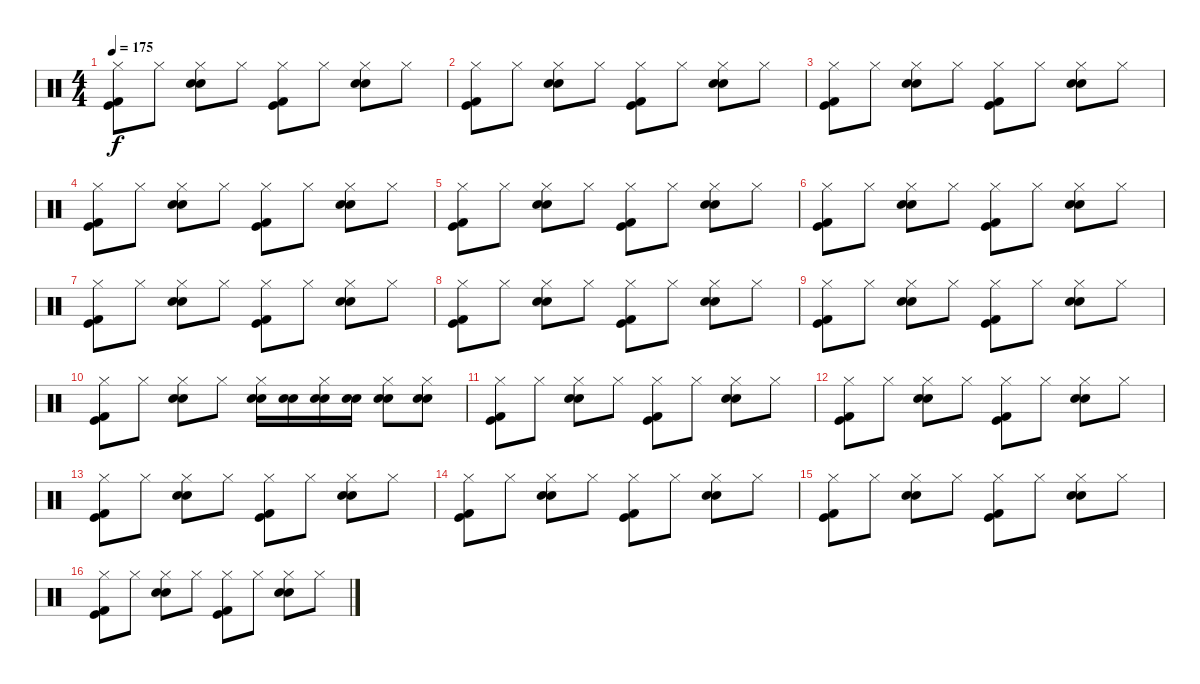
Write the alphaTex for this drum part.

\track "" {instrument percussion}
\staff {score}
\articulation defaults
\ts (4 4)
\tempo 175
\clef neutral
\ks c
("Kick (hit) 2" "Kick (hit)" "Hi-Hat (closed)").8{dy f} "Hi-Hat (closed)".8 ("Electric Snare (hit)" "Snare (hit) 2" "Hi-Hat (closed)").8 "Hi-Hat (closed)".8 ("Hi-Hat (closed)" "Kick (hit)" "Kick (hit) 2").8 "Hi-Hat (closed)".8 ("Electric Snare (hit)" "Snare (hit) 2" "Hi-Hat (closed)").8 "Hi-Hat (closed)".8 |
("Hi-Hat (closed)" "Kick (hit)" "Kick (hit) 2").8 "Hi-Hat (closed)".8 ("Electric Snare (hit)" "Snare (hit) 2" "Hi-Hat (closed)").8 "Hi-Hat (closed)".8 ("Hi-Hat (closed)" "Kick (hit)" "Kick (hit) 2").8 "Hi-Hat (closed)".8 ("Electric Snare (hit)" "Snare (hit) 2" "Hi-Hat (closed)").8 "Hi-Hat (closed)".8 |
("Kick (hit) 2" "Kick (hit)" "Hi-Hat (closed)").8 "Hi-Hat (closed)".8 ("Electric Snare (hit)" "Snare (hit) 2" "Hi-Hat (closed)").8 "Hi-Hat (closed)".8 ("Hi-Hat (closed)" "Kick (hit)" "Kick (hit) 2").8 "Hi-Hat (closed)".8 ("Electric Snare (hit)" "Snare (hit) 2" "Hi-Hat (closed)").8 "Hi-Hat (closed)".8 |
("Hi-Hat (closed)" "Kick (hit)" "Kick (hit) 2").8 "Hi-Hat (closed)".8 ("Electric Snare (hit)" "Snare (hit) 2" "Hi-Hat (closed)").8 "Hi-Hat (closed)".8 ("Hi-Hat (closed)" "Kick (hit)" "Kick (hit) 2").8 "Hi-Hat (closed)".8 ("Electric Snare (hit)" "Snare (hit) 2" "Hi-Hat (closed)").8 "Hi-Hat (closed)".8 |
("Kick (hit) 2" "Kick (hit)" "Hi-Hat (closed)").8 "Hi-Hat (closed)".8 ("Electric Snare (hit)" "Snare (hit) 2" "Hi-Hat (closed)").8 "Hi-Hat (closed)".8 ("Hi-Hat (closed)" "Kick (hit)" "Kick (hit) 2").8 "Hi-Hat (closed)".8 ("Electric Snare (hit)" "Snare (hit) 2" "Hi-Hat (closed)").8 "Hi-Hat (closed)".8 |
("Hi-Hat (closed)" "Kick (hit)" "Kick (hit) 2").8 "Hi-Hat (closed)".8 ("Electric Snare (hit)" "Snare (hit) 2" "Hi-Hat (closed)").8 "Hi-Hat (closed)".8 ("Hi-Hat (closed)" "Kick (hit)" "Kick (hit) 2").8 "Hi-Hat (closed)".8 ("Electric Snare (hit)" "Snare (hit) 2" "Hi-Hat (closed)").8 "Hi-Hat (closed)".8 |
("Hi-Hat (closed)" "Kick (hit)" "Kick (hit) 2").8 "Hi-Hat (closed)".8 ("Electric Snare (hit)" "Snare (hit) 2" "Hi-Hat (closed)").8 "Hi-Hat (closed)".8 ("Hi-Hat (closed)" "Kick (hit)" "Kick (hit) 2").8 "Hi-Hat (closed)".8 ("Electric Snare (hit)" "Snare (hit) 2" "Hi-Hat (closed)").8 "Hi-Hat (closed)".8 |
("Hi-Hat (closed)" "Kick (hit)" "Kick (hit) 2").8 "Hi-Hat (closed)".8 ("Electric Snare (hit)" "Snare (hit) 2" "Hi-Hat (closed)").8 "Hi-Hat (closed)".8 ("Hi-Hat (closed)" "Kick (hit)" "Kick (hit) 2").8 "Hi-Hat (closed)".8 ("Electric Snare (hit)" "Snare (hit) 2" "Hi-Hat (closed)").8 "Hi-Hat (closed)".8 |
("Hi-Hat (closed)" "Kick (hit)" "Kick (hit) 2").8 "Hi-Hat (closed)".8 ("Electric Snare (hit)" "Snare (hit) 2" "Hi-Hat (closed)").8 "Hi-Hat (closed)".8 ("Hi-Hat (closed)" "Kick (hit)" "Kick (hit) 2").8 "Hi-Hat (closed)".8 ("Electric Snare (hit)" "Snare (hit) 2" "Hi-Hat (closed)").8 "Hi-Hat (closed)".8 |
("Hi-Hat (closed)" "Kick (hit)" "Kick (hit) 2").8 "Hi-Hat (closed)".8 ("Electric Snare (hit)" "Snare (hit) 2" "Hi-Hat (closed)").8 "Hi-Hat (closed)".8 ("Hi-Hat (closed)" "Snare (hit) 2" "Electric Snare (hit)").16 ("Snare (hit) 2" "Electric Snare (hit)").16 ("Snare (hit) 2" "Electric Snare (hit)" "Hi-Hat (closed)").16 ("Snare (hit) 2" "Electric Snare (hit)").16 ("Hi-Hat (closed)" "Snare (hit) 2" "Electric Snare (hit)").8 ("Electric Snare (hit)" "Snare (hit) 2" "Hi-Hat (closed)").8 |
("Kick (hit) 2" "Kick (hit)" "Hi-Hat (closed)").8 "Hi-Hat (closed)".8 ("Electric Snare (hit)" "Snare (hit) 2" "Hi-Hat (closed)").8 "Hi-Hat (closed)".8 ("Hi-Hat (closed)" "Kick (hit)" "Kick (hit) 2").8 "Hi-Hat (closed)".8 ("Electric Snare (hit)" "Snare (hit) 2" "Hi-Hat (closed)").8 "Hi-Hat (closed)".8 |
("Hi-Hat (closed)" "Kick (hit)" "Kick (hit) 2").8 "Hi-Hat (closed)".8 ("Electric Snare (hit)" "Snare (hit) 2" "Hi-Hat (closed)").8 "Hi-Hat (closed)".8 ("Hi-Hat (closed)" "Kick (hit)" "Kick (hit) 2").8 "Hi-Hat (closed)".8 ("Electric Snare (hit)" "Snare (hit) 2" "Hi-Hat (closed)").8 "Hi-Hat (closed)".8 |
("Hi-Hat (closed)" "Kick (hit)" "Kick (hit) 2").8 "Hi-Hat (closed)".8 ("Electric Snare (hit)" "Snare (hit) 2" "Hi-Hat (closed)").8 "Hi-Hat (closed)".8 ("Hi-Hat (closed)" "Kick (hit)" "Kick (hit) 2").8 "Hi-Hat (closed)".8 ("Electric Snare (hit)" "Snare (hit) 2" "Hi-Hat (closed)").8 "Hi-Hat (closed)".8 |
("Hi-Hat (closed)" "Kick (hit)" "Kick (hit) 2").8 "Hi-Hat (closed)".8 ("Electric Snare (hit)" "Snare (hit) 2" "Hi-Hat (closed)").8 "Hi-Hat (closed)".8 ("Hi-Hat (closed)" "Kick (hit)" "Kick (hit) 2").8 "Hi-Hat (closed)".8 ("Electric Snare (hit)" "Snare (hit) 2" "Hi-Hat (closed)").8 "Hi-Hat (closed)".8 |
("Hi-Hat (closed)" "Kick (hit)" "Kick (hit) 2").8 "Hi-Hat (closed)".8 ("Electric Snare (hit)" "Snare (hit) 2" "Hi-Hat (closed)").8 "Hi-Hat (closed)".8 ("Hi-Hat (closed)" "Kick (hit)" "Kick (hit) 2").8 "Hi-Hat (closed)".8 ("Electric Snare (hit)" "Snare (hit) 2" "Hi-Hat (closed)").8 "Hi-Hat (closed)".8 |
("Hi-Hat (closed)" "Kick (hit)" "Kick (hit) 2").8 "Hi-Hat (closed)".8 ("Electric Snare (hit)" "Snare (hit) 2" "Hi-Hat (closed)").8 "Hi-Hat (closed)".8 ("Hi-Hat (closed)" "Kick (hit)" "Kick (hit) 2").8 "Hi-Hat (closed)".8 ("Electric Snare (hit)" "Snare (hit) 2" "Hi-Hat (closed)").8 "Hi-Hat (closed)".8
